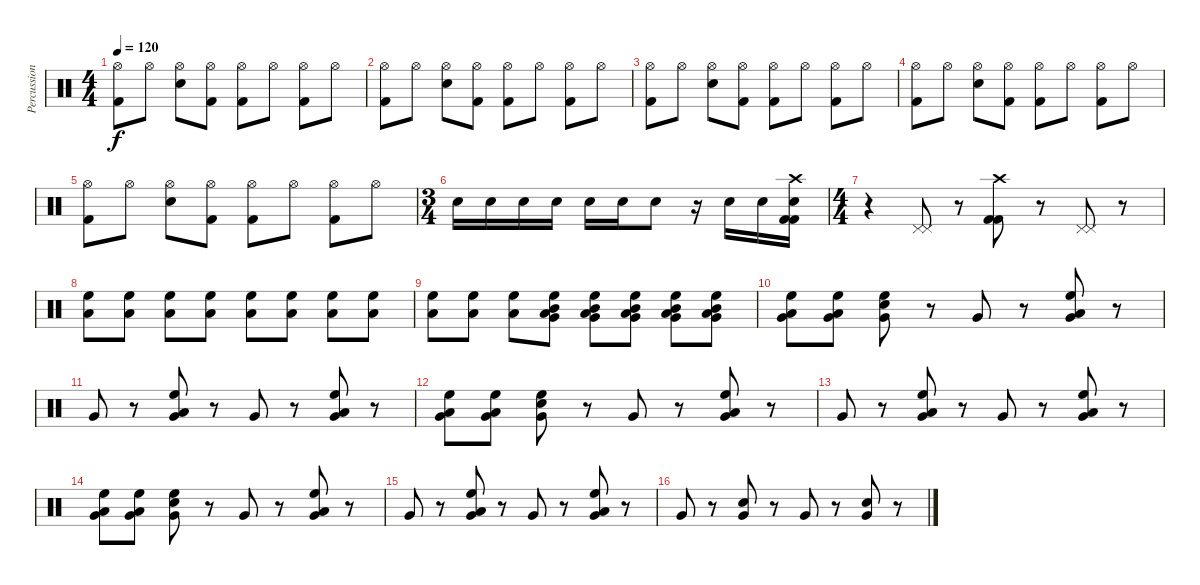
\track ("Percussion" "Percussion") {instrument percussion}
\staff {score}
\articulation defaults
\ts (4 4)
\tempo 120
\clef neutral
\ks c
("Hi-Hat (open)" "Kick (hit) 2").8{dy f} "Hi-Hat (open)".8 ("Hi-Hat (open)" "Snare (hit) 2").8 ("Hi-Hat (open)" "Kick (hit) 2").8 ("Hi-Hat (open)" "Kick (hit) 2").8 "Hi-Hat (open)".8 ("Hi-Hat (open)" "Kick (hit) 2").8 "Hi-Hat (open)".8 |
("Hi-Hat (open)" "Kick (hit) 2").8 "Hi-Hat (open)".8 ("Hi-Hat (open)" "Snare (hit) 2").8 ("Hi-Hat (open)" "Kick (hit) 2").8 ("Hi-Hat (open)" "Kick (hit) 2").8 "Hi-Hat (open)".8 ("Hi-Hat (open)" "Kick (hit) 2").8 "Hi-Hat (open)".8 |
("Hi-Hat (open)" "Kick (hit) 2").8 "Hi-Hat (open)".8 ("Hi-Hat (open)" "Snare (hit) 2").8 ("Hi-Hat (open)" "Kick (hit) 2").8 ("Hi-Hat (open)" "Kick (hit) 2").8 "Hi-Hat (open)".8 ("Hi-Hat (open)" "Kick (hit) 2").8 "Hi-Hat (open)".8 |
("Hi-Hat (open)" "Kick (hit) 2").8 "Hi-Hat (open)".8 ("Hi-Hat (open)" "Snare (hit) 2").8 ("Hi-Hat (open)" "Kick (hit) 2").8 ("Hi-Hat (open)" "Kick (hit) 2").8 "Hi-Hat (open)".8 ("Hi-Hat (open)" "Kick (hit) 2").8 "Hi-Hat (open)".8 |
("Hi-Hat (open)" "Kick (hit) 2").8 "Hi-Hat (open)".8 ("Hi-Hat (open)" "Snare (hit) 2").8 ("Hi-Hat (open)" "Kick (hit) 2").8 ("Hi-Hat (open)" "Kick (hit) 2").8 "Hi-Hat (open)".8 ("Hi-Hat (open)" "Kick (hit) 2").8 "Hi-Hat (open)".8 |
\ts (3 4)
"Snare (hit) 2".16 "Snare (hit) 2".16 "Snare (hit) 2".16 "Snare (hit) 2".16 "Snare (hit) 2".16 "Snare (hit) 2".16 "Snare (hit) 2".8 r.16 "Snare (hit) 2".16 "Snare (hit) 2".16 ("Crash high (hit)" "Snare (hit) 2" "Kick (hit) 2" "Kick (hit) 2").16 |
\ts (4 4)
r.4 ("Pedal Hi-Hat (hit)" "Pedal Hi-Hat (hit)").8 r.8 ("Crash high (hit)" "Kick (hit) 2" "Kick (hit) 2").8 r.8 ("Pedal Hi-Hat (hit)" "Pedal Hi-Hat (hit)").8 r.8 |
("Low Tom (hit)" "High Floor Tom (hit)").8 ("Low Tom (hit)" "High Floor Tom (hit)").8 ("Low Tom (hit)" "High Floor Tom (hit)").8 ("Low Tom (hit)" "High Floor Tom (hit)").8 ("Low Tom (hit)" "High Floor Tom (hit)").8 ("Low Tom (hit)" "High Floor Tom (hit)").8 ("Low Tom (hit)" "High Floor Tom (hit)").8 ("Low Tom (hit)" "High Floor Tom (hit)").8 |
("Low Tom (hit)" "High Floor Tom (hit)").8 ("Low Tom (hit)" "High Floor Tom (hit)").8 ("Low Tom (hit)" "High Floor Tom (hit)").8 ("Low Floor Tom (hit)" "High Floor Tom (hit)" "Very Low Tom (hit)" "Mid Tom (hit)").8 ("Low Floor Tom (hit)" "High Floor Tom (hit)" "Very Low Tom (hit)" "Mid Tom (hit)").8 ("Low Floor Tom (hit)" "High Floor Tom (hit)" "Very Low Tom (hit)" "Mid Tom (hit)").8 ("Low Floor Tom (hit)" "High Floor Tom (hit)" "Very Low Tom (hit)" "Mid Tom (hit)").8 ("Low Floor Tom (hit)" "High Floor Tom (hit)" "Very Low Tom (hit)" "Mid Tom (hit)").8 |
("Low Floor Tom (hit)" "High Floor Tom (hit)" "Very Low Tom (hit)").8 ("Low Floor Tom (hit)" "High Floor Tom (hit)" "Very Low Tom (hit)").8 ("High Floor Tom (hit)" "Electric Snare (hit)" "Very Low Tom (hit)").8 r.8 "Very Low Tom (hit)".8 r.8 ("Low Tom (hit)" "High Floor Tom (hit)" "Very Low Tom (hit)").8 r.8 |
"Very Low Tom (hit)".8 r.8 ("Low Tom (hit)" "High Floor Tom (hit)" "Very Low Tom (hit)").8 r.8 "Very Low Tom (hit)".8 r.8 ("Low Tom (hit)" "High Floor Tom (hit)" "Very Low Tom (hit)").8 r.8 |
("Low Floor Tom (hit)" "High Floor Tom (hit)" "Very Low Tom (hit)").8 ("Low Floor Tom (hit)" "High Floor Tom (hit)" "Very Low Tom (hit)").8 ("High Floor Tom (hit)" "Electric Snare (hit)" "Very Low Tom (hit)").8 r.8 "Very Low Tom (hit)".8 r.8 ("Low Tom (hit)" "High Floor Tom (hit)" "Very Low Tom (hit)").8 r.8 |
"Very Low Tom (hit)".8 r.8 ("Low Tom (hit)" "High Floor Tom (hit)" "Very Low Tom (hit)").8 r.8 "Very Low Tom (hit)".8 r.8 ("Low Tom (hit)" "High Floor Tom (hit)" "Very Low Tom (hit)").8 r.8 |
("Low Floor Tom (hit)" "High Floor Tom (hit)" "Very Low Tom (hit)").8 ("Low Floor Tom (hit)" "High Floor Tom (hit)" "Very Low Tom (hit)").8 ("High Floor Tom (hit)" "Electric Snare (hit)" "Very Low Tom (hit)").8 r.8 "Very Low Tom (hit)".8 r.8 ("Low Tom (hit)" "High Floor Tom (hit)" "Very Low Tom (hit)").8 r.8 |
"Very Low Tom (hit)".8 r.8 ("Low Tom (hit)" "High Floor Tom (hit)" "Very Low Tom (hit)").8 r.8 "Very Low Tom (hit)".8 r.8 ("Low Tom (hit)" "High Floor Tom (hit)" "Very Low Tom (hit)").8 r.8 |
"Very Low Tom (hit)".8 r.8 ("Electric Snare (hit)" "Very Low Tom (hit)").8 r.8 "Very Low Tom (hit)".8 r.8 ("Electric Snare (hit)" "Very Low Tom (hit)").8 r.8
